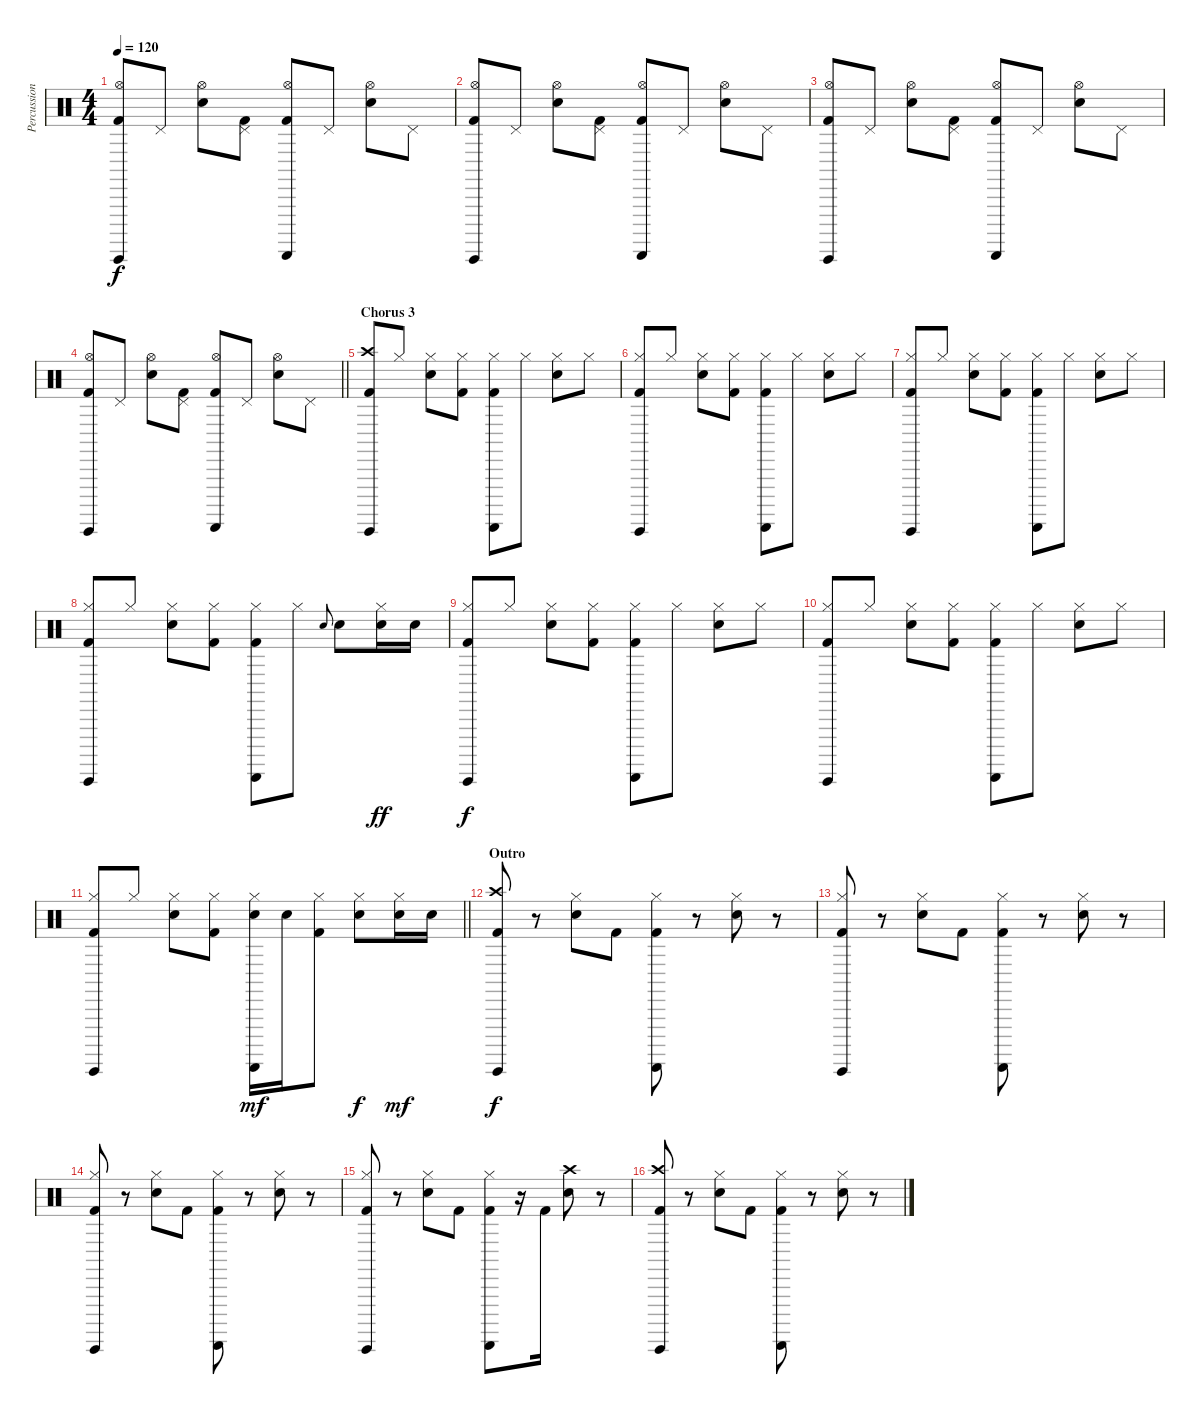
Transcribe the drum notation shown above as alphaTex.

\track ("Percussion" "Percussion") {instrument percussion}
\staff {score}
\articulation defaults
\ts (4 4)
\tempo 120
\clef neutral
\ks c
("Guiro (hit)" "Hi-Hat (open)" "Kick (hit) 2").8{dy f} "Pedal Hi-Hat (hit)".8 ("Hi-Hat (open)" "Electric Snare (hit)").8 ("Pedal Hi-Hat (hit)" "Kick (hit) 2").8 ("Guiro (scrap-return)" "Hi-Hat (open)" "Kick (hit) 2").8 "Pedal Hi-Hat (hit)".8 ("Hi-Hat (open)" "Electric Snare (hit)").8 "Pedal Hi-Hat (hit)".8 |
("Guiro (hit)" "Hi-Hat (open)" "Kick (hit) 2").8 "Pedal Hi-Hat (hit)".8 ("Hi-Hat (open)" "Electric Snare (hit)").8 ("Pedal Hi-Hat (hit)" "Kick (hit) 2").8 ("Guiro (scrap-return)" "Hi-Hat (open)" "Kick (hit) 2").8 "Pedal Hi-Hat (hit)".8 ("Hi-Hat (open)" "Electric Snare (hit)").8 "Pedal Hi-Hat (hit)".8 |
("Guiro (hit)" "Hi-Hat (open)" "Kick (hit) 2").8 "Pedal Hi-Hat (hit)".8 ("Hi-Hat (open)" "Electric Snare (hit)").8 ("Pedal Hi-Hat (hit)" "Kick (hit) 2").8 ("Guiro (scrap-return)" "Hi-Hat (open)" "Kick (hit) 2").8 "Pedal Hi-Hat (hit)".8 ("Hi-Hat (open)" "Electric Snare (hit)").8 "Pedal Hi-Hat (hit)".8 |
\barLineRight lightlight
("Guiro (hit)" "Hi-Hat (open)" "Kick (hit) 2").8 "Pedal Hi-Hat (hit)".8 ("Hi-Hat (open)" "Electric Snare (hit)").8 ("Pedal Hi-Hat (hit)" "Kick (hit) 2").8 ("Guiro (scrap-return)" "Hi-Hat (open)" "Kick (hit) 2").8 "Pedal Hi-Hat (hit)".8 ("Hi-Hat (open)" "Electric Snare (hit)").8 "Pedal Hi-Hat (hit)".8 |
\section ("" "Chorus 3")
("Guiro (hit)" "Crash high (hit)" "Kick (hit) 2").8 "Hi-Hat (closed)".8 ("Hi-Hat (closed)" "Electric Snare (hit)").8 ("Hi-Hat (closed)" "Kick (hit) 2").8 ("Guiro (scrap-return)" "Hi-Hat (closed)" "Kick (hit) 2").8 "Hi-Hat (closed)".8 ("Hi-Hat (closed)" "Electric Snare (hit)").8 "Hi-Hat (closed)".8 |
("Guiro (hit)" "Hi-Hat (closed)" "Kick (hit) 2").8 "Hi-Hat (closed)".8 ("Hi-Hat (closed)" "Electric Snare (hit)").8 ("Hi-Hat (closed)" "Kick (hit) 2").8 ("Guiro (scrap-return)" "Hi-Hat (closed)" "Kick (hit) 2").8 "Hi-Hat (closed)".8 ("Hi-Hat (closed)" "Electric Snare (hit)").8 "Hi-Hat (closed)".8 |
("Guiro (hit)" "Hi-Hat (closed)" "Kick (hit) 2").8 "Hi-Hat (closed)".8 ("Hi-Hat (closed)" "Electric Snare (hit)").8 ("Hi-Hat (closed)" "Kick (hit) 2").8 ("Guiro (scrap-return)" "Hi-Hat (closed)" "Kick (hit) 2").8 "Hi-Hat (closed)".8 ("Hi-Hat (closed)" "Electric Snare (hit)").8 "Hi-Hat (closed)".8 |
("Guiro (hit)" "Hi-Hat (closed)" "Kick (hit) 2").8 "Hi-Hat (closed)".8 ("Hi-Hat (closed)" "Electric Snare (hit)").8 ("Hi-Hat (closed)" "Kick (hit) 2").8 ("Guiro (scrap-return)" "Hi-Hat (closed)" "Kick (hit) 2").8 "Hi-Hat (closed)".8 "Electric Snare (hit)".8{gr onbeat} "Electric Snare (hit)".8 ("Hi-Hat (closed)" "Electric Snare (hit)").16{dy ff} "Electric Snare (hit)".16 |
("Guiro (hit)" "Hi-Hat (closed)" "Kick (hit) 2").8{dy f} "Hi-Hat (closed)".8 ("Hi-Hat (closed)" "Electric Snare (hit)").8 ("Hi-Hat (closed)" "Kick (hit) 2").8 ("Guiro (scrap-return)" "Hi-Hat (closed)" "Kick (hit) 2").8 "Hi-Hat (closed)".8 ("Hi-Hat (closed)" "Electric Snare (hit)").8 "Hi-Hat (closed)".8 |
("Guiro (hit)" "Hi-Hat (closed)" "Kick (hit) 2").8 "Hi-Hat (closed)".8 ("Hi-Hat (closed)" "Electric Snare (hit)").8 ("Hi-Hat (closed)" "Kick (hit) 2").8 ("Guiro (scrap-return)" "Hi-Hat (closed)" "Kick (hit) 2").8 "Hi-Hat (closed)".8 ("Hi-Hat (closed)" "Electric Snare (hit)").8 "Hi-Hat (closed)".8 |
\barLineRight lightlight
("Guiro (hit)" "Hi-Hat (closed)" "Kick (hit) 2").8 "Hi-Hat (closed)".8 ("Hi-Hat (closed)" "Electric Snare (hit)").8 ("Hi-Hat (closed)" "Kick (hit) 2").8 ("Guiro (scrap-return)" "Hi-Hat (closed)" "Electric Snare (hit)").16{dy mf} "Electric Snare (hit)".16 ("Hi-Hat (closed)" "Kick (hit) 2").8 ("Hi-Hat (closed)" "Electric Snare (hit)").8{dy f} ("Hi-Hat (closed)" "Electric Snare (hit)").16{dy mf} "Electric Snare (hit)".16 |
\section ("" "Outro")
("Guiro (hit)" "Crash high (hit)" "Kick (hit) 2").8{dy f} r.8 ("Hi-Hat (closed)" "Electric Snare (hit)").8 "Kick (hit) 2".8 ("Guiro (scrap-return)" "Hi-Hat (closed)" "Kick (hit) 2").8 r.8 ("Hi-Hat (closed)" "Electric Snare (hit)").8 r.8 |
("Guiro (hit)" "Hi-Hat (closed)" "Kick (hit) 2").8 r.8 ("Hi-Hat (closed)" "Electric Snare (hit)").8 "Kick (hit) 2".8 ("Guiro (scrap-return)" "Hi-Hat (closed)" "Kick (hit) 2").8 r.8 ("Hi-Hat (closed)" "Electric Snare (hit)").8 r.8 |
("Guiro (hit)" "Hi-Hat (closed)" "Kick (hit) 2").8 r.8 ("Hi-Hat (closed)" "Electric Snare (hit)").8 "Kick (hit) 2".8 ("Guiro (scrap-return)" "Hi-Hat (closed)" "Kick (hit) 2").8 r.8 ("Hi-Hat (closed)" "Electric Snare (hit)").8 r.8 |
("Guiro (hit)" "Hi-Hat (closed)" "Kick (hit) 2").8 r.8 ("Hi-Hat (closed)" "Electric Snare (hit)").8 "Kick (hit) 2".8 ("Guiro (scrap-return)" "Hi-Hat (closed)" "Kick (hit) 2").8 r.16 "Kick (hit) 2".16 ("Crash high (hit)" "Electric Snare (hit)").8 r.8 |
("Guiro (hit)" "Crash high (hit)" "Kick (hit) 2").8 r.8 ("Hi-Hat (closed)" "Electric Snare (hit)").8 "Kick (hit) 2".8 ("Guiro (scrap-return)" "Hi-Hat (closed)" "Kick (hit) 2").8 r.8 ("Hi-Hat (closed)" "Electric Snare (hit)").8 r.8
